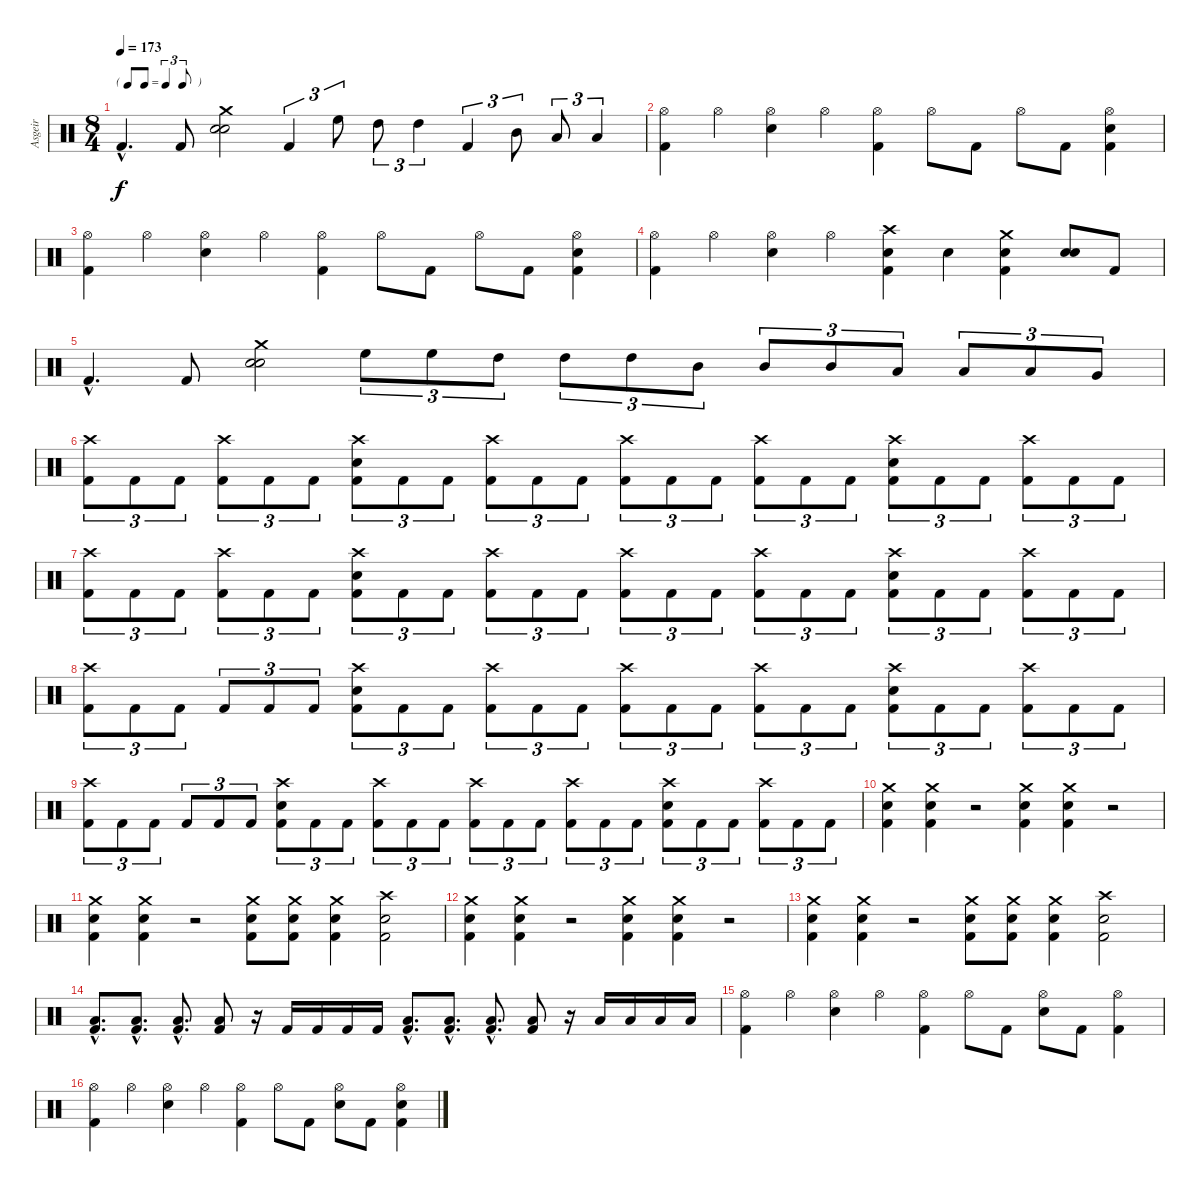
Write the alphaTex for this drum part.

\track ("Asgeir" "Asgeir") {instrument percussion}
\staff {score}
\articulation defaults
\ts (8 4)
\tf triplet8th
\tempo 173
\clef neutral
\ks c "Kick (hit) 2"{hac}.4{d dy f} "Kick (hit) 2".8
("Snare (hit) 2" "Snare (hit) 2" "Crash medium (hit)").2 "Kick (hit) 2".4{tu (3 2)} "High Floor Tom (hit)".8{tu (3 2)} "High Tom (hit)".8{tu (3 2)} "High Tom (hit)".4{tu (3 2)} "Kick (hit) 2".4{tu (3 2)} "Mid Tom (hit)".8{tu (3 2)} "Low Tom (hit)".8{tu (3 2)} "Low Tom (hit)".4{tu (3 2)} |
("Kick (hit) 2" "Hi-Hat (open)").4 "Hi-Hat (open)".4 ("Snare (hit) 2" "Hi-Hat (open)").4 "Hi-Hat (open)".4 ("Kick (hit) 2" "Hi-Hat (open)").4 "Hi-Hat (open)".8 "Kick (hit) 2".8 "Hi-Hat (open)".8 "Kick (hit) 2".8 ("Kick (hit) 2" "Snare (hit) 2" "Hi-Hat (open)").4 |
("Kick (hit) 2" "Hi-Hat (open)").4 "Hi-Hat (open)".4 ("Snare (hit) 2" "Hi-Hat (open)").4 "Hi-Hat (open)".4 ("Kick (hit) 2" "Hi-Hat (open)").4 "Hi-Hat (open)".8 "Kick (hit) 2".8 "Hi-Hat (open)".8 "Kick (hit) 2".8 ("Kick (hit) 2" "Snare (hit) 2" "Hi-Hat (open)").4 |
("Kick (hit) 2" "Hi-Hat (open)").4 "Hi-Hat (open)".4 ("Snare (hit) 2" "Hi-Hat (open)").4 "Hi-Hat (open)".4 ("Kick (hit) 2" "Snare (hit) 2" "Crash high (hit)").4 "Snare (hit) 2".4 ("Kick (hit) 2" "Snare (hit) 2" "Crash medium (hit)").4 ("Snare (hit) 2" "Snare (hit) 2").8{bd 480} "Kick (hit) 2".8 |
"Kick (hit) 2"{hac}.4{d} "Kick (hit) 2".8 ("Snare (hit) 2" "Snare (hit) 2" "Crash medium (hit)").2 "High Floor Tom (hit)".8{tu (3 2)} "High Floor Tom (hit)".8{tu (3 2)} "High Tom (hit)".8{tu (3 2)} "High Tom (hit)".8{tu (3 2)} "High Tom (hit)".8{tu (3 2)} "Mid Tom (hit)".8{tu (3 2)} "Mid Tom (hit)".8{tu (3 2)} "Mid Tom (hit)".8{tu (3 2)} "Low Tom (hit)".8{tu (3 2)} "Low Tom (hit)".8{tu (3 2)} "Low Tom (hit)".8{tu (3 2)} "Very Low Tom (hit)".8{tu (3 2)} |
("Kick (hit) 2" "Crash high (hit)").8{tu (3 2)} "Kick (hit) 2".8{tu (3 2)} "Kick (hit) 2".8{tu (3 2)} ("Kick (hit) 2" "Crash high (hit)").8{tu (3 2)} "Kick (hit) 2".8{tu (3 2)} "Kick (hit) 2".8{tu (3 2)} ("Kick (hit) 2" "Snare (hit) 2" "Crash high (hit)").8{tu (3 2)} "Kick (hit) 2".8{tu (3 2)} "Kick (hit) 2".8{tu (3 2)} ("Kick (hit) 2" "Crash high (hit)").8{tu (3 2)} "Kick (hit) 2".8{tu (3 2)} "Kick (hit) 2".8{tu (3 2)} ("Kick (hit) 2" "Crash high (hit)").8{tu (3 2)} "Kick (hit) 2".8{tu (3 2)} "Kick (hit) 2".8{tu (3 2)} ("Kick (hit) 2" "Crash high (hit)").8{tu (3 2)} "Kick (hit) 2".8{tu (3 2)} "Kick (hit) 2".8{tu (3 2)} ("Kick (hit) 2" "Snare (hit) 2" "Crash high (hit)").8{tu (3 2)} "Kick (hit) 2".8{tu (3 2)} "Kick (hit) 2".8{tu (3 2)} ("Kick (hit) 2" "Crash high (hit)").8{tu (3 2)} "Kick (hit) 2".8{tu (3 2)} "Kick (hit) 2".8{tu (3 2)} |
("Kick (hit) 2" "Crash high (hit)").8{tu (3 2)} "Kick (hit) 2".8{tu (3 2)} "Kick (hit) 2".8{tu (3 2)} ("Kick (hit) 2" "Crash high (hit)").8{tu (3 2)} "Kick (hit) 2".8{tu (3 2)} "Kick (hit) 2".8{tu (3 2)} ("Kick (hit) 2" "Snare (hit) 2" "Crash high (hit)").8{tu (3 2)} "Kick (hit) 2".8{tu (3 2)} "Kick (hit) 2".8{tu (3 2)} ("Kick (hit) 2" "Crash high (hit)").8{tu (3 2)} "Kick (hit) 2".8{tu (3 2)} "Kick (hit) 2".8{tu (3 2)} ("Kick (hit) 2" "Crash high (hit)").8{tu (3 2)} "Kick (hit) 2".8{tu (3 2)} "Kick (hit) 2".8{tu (3 2)} ("Kick (hit) 2" "Crash high (hit)").8{tu (3 2)} "Kick (hit) 2".8{tu (3 2)} "Kick (hit) 2".8{tu (3 2)} ("Kick (hit) 2" "Snare (hit) 2" "Crash high (hit)").8{tu (3 2)} "Kick (hit) 2".8{tu (3 2)} "Kick (hit) 2".8{tu (3 2)} ("Kick (hit) 2" "Crash high (hit)").8{tu (3 2)} "Kick (hit) 2".8{tu (3 2)} "Kick (hit) 2".8{tu (3 2)} |
("Kick (hit) 2" "Crash high (hit)").8{tu (3 2)} "Kick (hit) 2".8{tu (3 2)} "Kick (hit) 2".8{tu (3 2)} "Kick (hit) 2".8{tu (3 2)} "Kick (hit) 2".8{tu (3 2)} "Kick (hit) 2".8{tu (3 2)} ("Kick (hit) 2" "Snare (hit) 2" "Crash high (hit)").8{tu (3 2)} "Kick (hit) 2".8{tu (3 2)} "Kick (hit) 2".8{tu (3 2)} ("Kick (hit) 2" "Crash high (hit)").8{tu (3 2)} "Kick (hit) 2".8{tu (3 2)} "Kick (hit) 2".8{tu (3 2)} ("Kick (hit) 2" "Crash high (hit)").8{tu (3 2)} "Kick (hit) 2".8{tu (3 2)} "Kick (hit) 2".8{tu (3 2)} ("Kick (hit) 2" "Crash high (hit)").8{tu (3 2)} "Kick (hit) 2".8{tu (3 2)} "Kick (hit) 2".8{tu (3 2)} ("Kick (hit) 2" "Snare (hit) 2" "Crash high (hit)").8{tu (3 2)} "Kick (hit) 2".8{tu (3 2)} "Kick (hit) 2".8{tu (3 2)} ("Kick (hit) 2" "Crash high (hit)").8{tu (3 2)} "Kick (hit) 2".8{tu (3 2)} "Kick (hit) 2".8{tu (3 2)} |
("Kick (hit) 2" "Crash high (hit)").8{tu (3 2)} "Kick (hit) 2".8{tu (3 2)} "Kick (hit) 2".8{tu (3 2)} "Kick (hit) 2".8{tu (3 2)} "Kick (hit) 2".8{tu (3 2)} "Kick (hit) 2".8{tu (3 2)} ("Kick (hit) 2" "Snare (hit) 2" "Crash high (hit)").8{tu (3 2)} "Kick (hit) 2".8{tu (3 2)} "Kick (hit) 2".8{tu (3 2)} ("Kick (hit) 2" "Crash high (hit)").8{tu (3 2)} "Kick (hit) 2".8{tu (3 2)} "Kick (hit) 2".8{tu (3 2)} ("Kick (hit) 2" "Crash high (hit)").8{tu (3 2)} "Kick (hit) 2".8{tu (3 2)} "Kick (hit) 2".8{tu (3 2)} ("Kick (hit) 2" "Crash high (hit)").8{tu (3 2)} "Kick (hit) 2".8{tu (3 2)} "Kick (hit) 2".8{tu (3 2)} ("Kick (hit) 2" "Snare (hit) 2" "Crash high (hit)").8{tu (3 2)} "Kick (hit) 2".8{tu (3 2)} "Kick (hit) 2".8{tu (3 2)} ("Kick (hit) 2" "Crash high (hit)").8{tu (3 2)} "Kick (hit) 2".8{tu (3 2)} "Kick (hit) 2".8{tu (3 2)} |
("Kick (hit) 2" "Snare (hit) 2" "Crash medium (hit)").4 ("Kick (hit) 2" "Snare (hit) 2" "Crash medium (hit)").4 r.2 ("Kick (hit) 2" "Snare (hit) 2" "Crash medium (hit)").4 ("Kick (hit) 2" "Snare (hit) 2" "Crash medium (hit)").4 r.2 |
("Kick (hit) 2" "Snare (hit) 2" "Crash medium (hit)").4 ("Kick (hit) 2" "Snare (hit) 2" "Crash medium (hit)").4 r.2 ("Kick (hit) 2" "Snare (hit) 2" "Crash medium (hit)").8 ("Kick (hit) 2" "Snare (hit) 2" "Crash medium (hit)").8 ("Kick (hit) 2" "Snare (hit) 2" "Crash medium (hit)").4 ("Kick (hit) 2" "Snare (hit) 2" "Crash high (hit)").2 |
("Kick (hit) 2" "Snare (hit) 2" "Crash medium (hit)").4 ("Kick (hit) 2" "Snare (hit) 2" "Crash medium (hit)").4 r.2 ("Kick (hit) 2" "Snare (hit) 2" "Crash medium (hit)").4 ("Kick (hit) 2" "Snare (hit) 2" "Crash medium (hit)").4 r.2 |
("Kick (hit) 2" "Snare (hit) 2" "Crash medium (hit)").4 ("Kick (hit) 2" "Snare (hit) 2" "Crash medium (hit)").4 r.2 ("Kick (hit) 2" "Snare (hit) 2" "Crash medium (hit)").8 ("Kick (hit) 2" "Snare (hit) 2" "Crash medium (hit)").8 ("Kick (hit) 2" "Snare (hit) 2" "Crash medium (hit)").4 ("Kick (hit) 2" "Snare (hit) 2" "Crash high (hit)").2 |
("Kick (hit) 2"{hac} "Low Tom (hit)"{hac}).8{d} ("Kick (hit) 2"{hac} "Low Tom (hit)"{hac}).8{d} ("Kick (hit) 2"{hac} "Low Tom (hit)"{hac}).8{d} ("Kick (hit) 2" "Low Tom (hit)").8 r.16 "Kick (hit) 2".16 "Kick (hit) 2".16 "Kick (hit) 2".16 "Kick (hit) 2".16 ("Kick (hit) 2"{hac} "Low Tom (hit)"{hac}).8{d} ("Kick (hit) 2"{hac} "Low Tom (hit)"{hac}).8{d} ("Kick (hit) 2"{hac} "Low Tom (hit)"{hac}).8{d} ("Kick (hit) 2" "Low Tom (hit)").8 r.16 "Low Tom (hit)".16 "Low Tom (hit)".16 "Low Tom (hit)".16 "Low Tom (hit)".16 |
("Kick (hit) 2" "Hi-Hat (open)").4 "Hi-Hat (open)".4 ("Snare (hit) 2" "Hi-Hat (open)").4 "Hi-Hat (open)".4 ("Kick (hit) 2" "Hi-Hat (open)").4 "Hi-Hat (open)".8 "Kick (hit) 2".8 ("Snare (hit) 2" "Hi-Hat (open)").8 "Kick (hit) 2".8 ("Kick (hit) 2" "Hi-Hat (open)").4 |
("Kick (hit) 2" "Hi-Hat (open)").4 "Hi-Hat (open)".4 ("Snare (hit) 2" "Hi-Hat (open)").4 "Hi-Hat (open)".4 ("Kick (hit) 2" "Hi-Hat (open)").4 "Hi-Hat (open)".8 "Kick (hit) 2".8 ("Snare (hit) 2" "Hi-Hat (open)").8 "Kick (hit) 2".8 ("Kick (hit) 2" "Snare (hit) 2" "Hi-Hat (open)").4
